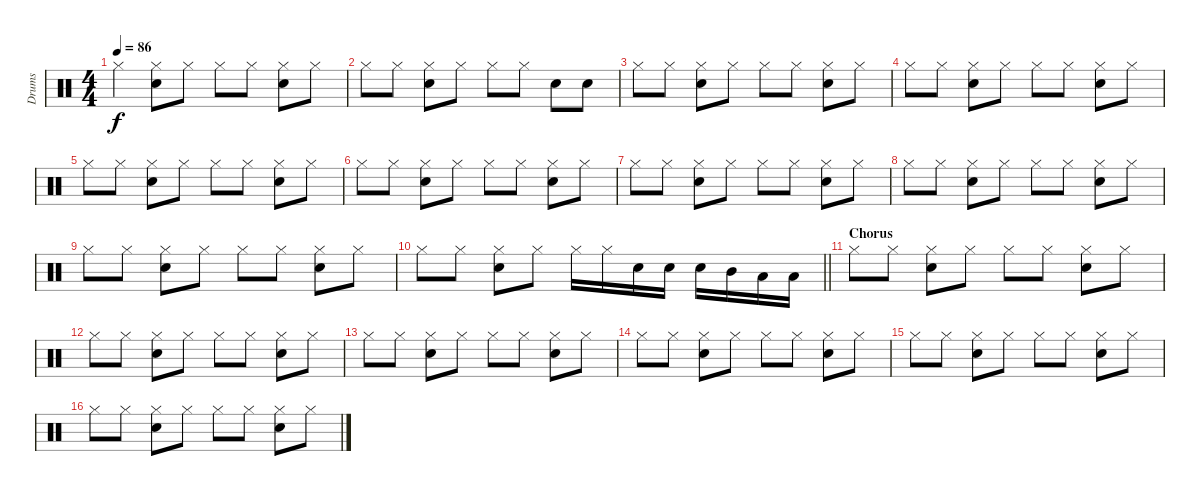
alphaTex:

\track ("Drums" "Drums") {instrument percussion}
\staff {score}
\articulation defaults
\ts (4 4)
\tempo 86
\clef neutral
\ks c "Hi-Hat (closed)".4{dy f}
("Hi-Hat (closed)" "Snare (hit) 2").8 "Hi-Hat (closed)".8 "Hi-Hat (closed)".8 "Hi-Hat (closed)".8 ("Hi-Hat (closed)" "Snare (hit) 2").8 "Hi-Hat (closed)".8 |
"Hi-Hat (closed)".8 "Hi-Hat (closed)".8 ("Hi-Hat (closed)" "Snare (hit) 2").8 "Hi-Hat (closed)".8 "Hi-Hat (closed)".8 "Hi-Hat (closed)".8 "Snare (hit) 2".8 "Snare (hit) 2".8 |
"Hi-Hat (closed)".8 "Hi-Hat (closed)".8 ("Hi-Hat (closed)" "Snare (hit) 2").8 "Hi-Hat (closed)".8 "Hi-Hat (closed)".8 "Hi-Hat (closed)".8 ("Hi-Hat (closed)" "Snare (hit) 2").8 "Hi-Hat (closed)".8 |
"Hi-Hat (closed)".8 "Hi-Hat (closed)".8 ("Hi-Hat (closed)" "Snare (hit) 2").8 "Hi-Hat (closed)".8 "Hi-Hat (closed)".8 "Hi-Hat (closed)".8 ("Hi-Hat (closed)" "Snare (hit) 2").8 "Hi-Hat (closed)".8 |
"Hi-Hat (closed)".8 "Hi-Hat (closed)".8 ("Hi-Hat (closed)" "Snare (hit) 2").8 "Hi-Hat (closed)".8 "Hi-Hat (closed)".8 "Hi-Hat (closed)".8 ("Hi-Hat (closed)" "Snare (hit) 2").8 "Hi-Hat (closed)".8 |
"Hi-Hat (closed)".8 "Hi-Hat (closed)".8 ("Hi-Hat (closed)" "Snare (hit) 2").8 "Hi-Hat (closed)".8 "Hi-Hat (closed)".8 "Hi-Hat (closed)".8 ("Hi-Hat (closed)" "Snare (hit) 2").8 "Hi-Hat (closed)".8 |
"Hi-Hat (closed)".8 "Hi-Hat (closed)".8 ("Hi-Hat (closed)" "Snare (hit) 2").8 "Hi-Hat (closed)".8 "Hi-Hat (closed)".8 "Hi-Hat (closed)".8 ("Hi-Hat (closed)" "Snare (hit) 2").8 "Hi-Hat (closed)".8 |
"Hi-Hat (closed)".8 "Hi-Hat (closed)".8 ("Hi-Hat (closed)" "Snare (hit) 2").8 "Hi-Hat (closed)".8 "Hi-Hat (closed)".8 "Hi-Hat (closed)".8 ("Hi-Hat (closed)" "Snare (hit) 2").8 "Hi-Hat (closed)".8 |
"Hi-Hat (closed)".8 "Hi-Hat (closed)".8 ("Hi-Hat (closed)" "Snare (hit) 2").8 "Hi-Hat (closed)".8 "Hi-Hat (closed)".8 "Hi-Hat (closed)".8 ("Hi-Hat (closed)" "Snare (hit) 2").8 "Hi-Hat (closed)".8 |
\barLineRight lightlight "Hi-Hat (closed)".8 "Hi-Hat (closed)".8
("Hi-Hat (closed)" "Snare (hit) 2").8 "Hi-Hat (closed)".8 "Hi-Hat (closed)".16 "Hi-Hat (closed)".16 "Snare (hit) 2".16 "Snare (hit) 2".16 "Snare (hit) 2".16 "Mid Tom (hit)".16 "Low Tom (hit)".16 "Low Tom (hit)".16 |
\section ("" "Chorus")
"Hi-Hat (closed)".8 "Hi-Hat (closed)".8 ("Hi-Hat (closed)" "Snare (hit) 2").8 "Hi-Hat (closed)".8 "Hi-Hat (closed)".8 "Hi-Hat (closed)".8 ("Hi-Hat (closed)" "Snare (hit) 2").8 "Hi-Hat (closed)".8 |
"Hi-Hat (closed)".8 "Hi-Hat (closed)".8 ("Hi-Hat (closed)" "Snare (hit) 2").8 "Hi-Hat (closed)".8 "Hi-Hat (closed)".8 "Hi-Hat (closed)".8 ("Hi-Hat (closed)" "Snare (hit) 2").8 "Hi-Hat (closed)".8 |
"Hi-Hat (closed)".8 "Hi-Hat (closed)".8 ("Hi-Hat (closed)" "Snare (hit) 2").8 "Hi-Hat (closed)".8 "Hi-Hat (closed)".8 "Hi-Hat (closed)".8 ("Hi-Hat (closed)" "Snare (hit) 2").8 "Hi-Hat (closed)".8 |
"Hi-Hat (closed)".8 "Hi-Hat (closed)".8 ("Hi-Hat (closed)" "Snare (hit) 2").8 "Hi-Hat (closed)".8 "Hi-Hat (closed)".8 "Hi-Hat (closed)".8 ("Hi-Hat (closed)" "Snare (hit) 2").8 "Hi-Hat (closed)".8 |
"Hi-Hat (closed)".8 "Hi-Hat (closed)".8 ("Hi-Hat (closed)" "Snare (hit) 2").8 "Hi-Hat (closed)".8 "Hi-Hat (closed)".8 "Hi-Hat (closed)".8 ("Hi-Hat (closed)" "Snare (hit) 2").8 "Hi-Hat (closed)".8 |
"Hi-Hat (closed)".8 "Hi-Hat (closed)".8 ("Hi-Hat (closed)" "Snare (hit) 2").8 "Hi-Hat (closed)".8 "Hi-Hat (closed)".8 "Hi-Hat (closed)".8 ("Hi-Hat (closed)" "Snare (hit) 2").8 "Hi-Hat (closed)".8
